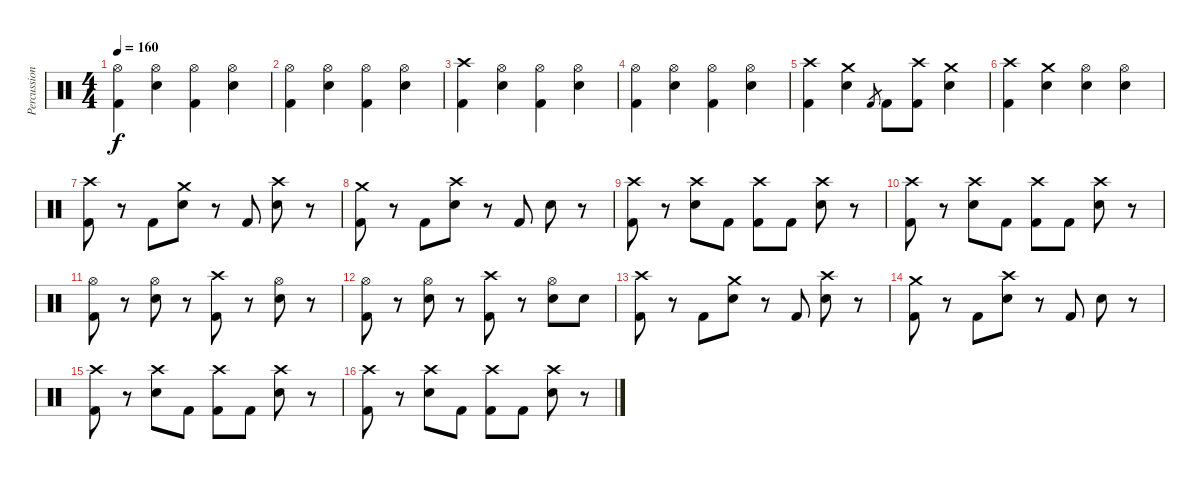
\track ("Percussion" "Percussion") {instrument percussion}
\staff {score}
\articulation defaults
\ts (4 4)
\tempo 160
\clef neutral
\ks c
("Hi-Hat (open)" "Kick (hit) 2").4{dy f} ("Hi-Hat (open)" "Electric Snare (hit)").4 ("Hi-Hat (open)" "Kick (hit) 2").4 ("Hi-Hat (open)" "Electric Snare (hit)").4 |
("Hi-Hat (open)" "Kick (hit) 2").4 ("Hi-Hat (open)" "Electric Snare (hit)").4 ("Hi-Hat (open)" "Kick (hit) 2").4 ("Hi-Hat (open)" "Electric Snare (hit)").4 |
("Crash high (hit)" "Kick (hit) 2").4 ("Hi-Hat (open)" "Electric Snare (hit)").4 ("Hi-Hat (open)" "Kick (hit) 2").4 ("Hi-Hat (open)" "Electric Snare (hit)").4 |
("Hi-Hat (open)" "Kick (hit) 2").4 ("Hi-Hat (open)" "Electric Snare (hit)").4 ("Hi-Hat (open)" "Kick (hit) 2").4 ("Hi-Hat (open)" "Electric Snare (hit)").4 |
("Crash high (hit)" "Kick (hit) 2").4 ("Crash medium (hit)" "Electric Snare (hit)").4 "Kick (hit) 2".8{gr} "Kick (hit) 2".8 ("Crash high (hit)" "Kick (hit) 2").8 ("Crash medium (hit)" "Electric Snare (hit)").4 |
("Crash high (hit)" "Kick (hit) 2").4 ("Crash medium (hit)" "Electric Snare (hit)").4 ("Hi-Hat (open)" "Electric Snare (hit)").4 ("Hi-Hat (open)" "Electric Snare (hit)").4 |
("Crash high (hit)" "Kick (hit) 2").8 r.8 "Kick (hit) 2".8 ("Crash medium (hit)" "Electric Snare (hit)").8 r.8 "Kick (hit) 2".8 ("Crash high (hit)" "Electric Snare (hit)").8 r.8 |
("Crash medium (hit)" "Kick (hit) 2").8 r.8 "Kick (hit) 2".8 ("Crash high (hit)" "Electric Snare (hit)").8 r.8 "Kick (hit) 2".8 "Electric Snare (hit)".8 r.8 |
("Crash high (hit)" "Kick (hit) 2").8 r.8 ("Crash high (hit)" "Electric Snare (hit)").8 "Kick (hit) 2".8 ("Crash high (hit)" "Kick (hit) 2").8 "Kick (hit) 2".8 ("Crash high (hit)" "Electric Snare (hit)").8 r.8 |
("Crash high (hit)" "Kick (hit) 2").8 r.8 ("Crash high (hit)" "Electric Snare (hit)").8 "Kick (hit) 2".8 ("Crash high (hit)" "Kick (hit) 2").8 "Kick (hit) 2".8 ("Crash high (hit)" "Electric Snare (hit)").8 r.8 |
("Hi-Hat (open)" "Kick (hit) 2").8 r.8 ("Hi-Hat (open)" "Electric Snare (hit)").8 r.8 ("Crash high (hit)" "Kick (hit) 2").8 r.8 ("Hi-Hat (open)" "Electric Snare (hit)").8 r.8 |
("Hi-Hat (open)" "Kick (hit) 2").8 r.8 ("Hi-Hat (open)" "Electric Snare (hit)").8 r.8 ("Crash high (hit)" "Kick (hit) 2").8 r.8 ("Hi-Hat (open)" "Electric Snare (hit)").8 "Electric Snare (hit)".8 |
("Crash high (hit)" "Kick (hit) 2").8 r.8 "Kick (hit) 2".8 ("Crash medium (hit)" "Electric Snare (hit)").8 r.8 "Kick (hit) 2".8 ("Crash high (hit)" "Electric Snare (hit)").8 r.8 |
("Crash medium (hit)" "Kick (hit) 2").8 r.8 "Kick (hit) 2".8 ("Crash high (hit)" "Electric Snare (hit)").8 r.8 "Kick (hit) 2".8 "Electric Snare (hit)".8 r.8 |
("Crash high (hit)" "Kick (hit) 2").8 r.8 ("Crash high (hit)" "Electric Snare (hit)").8 "Kick (hit) 2".8 ("Crash high (hit)" "Kick (hit) 2").8 "Kick (hit) 2".8 ("Crash high (hit)" "Electric Snare (hit)").8 r.8 |
("Crash high (hit)" "Kick (hit) 2").8 r.8 ("Crash high (hit)" "Electric Snare (hit)").8 "Kick (hit) 2".8 ("Crash high (hit)" "Kick (hit) 2").8 "Kick (hit) 2".8 ("Crash high (hit)" "Electric Snare (hit)").8 r.8
